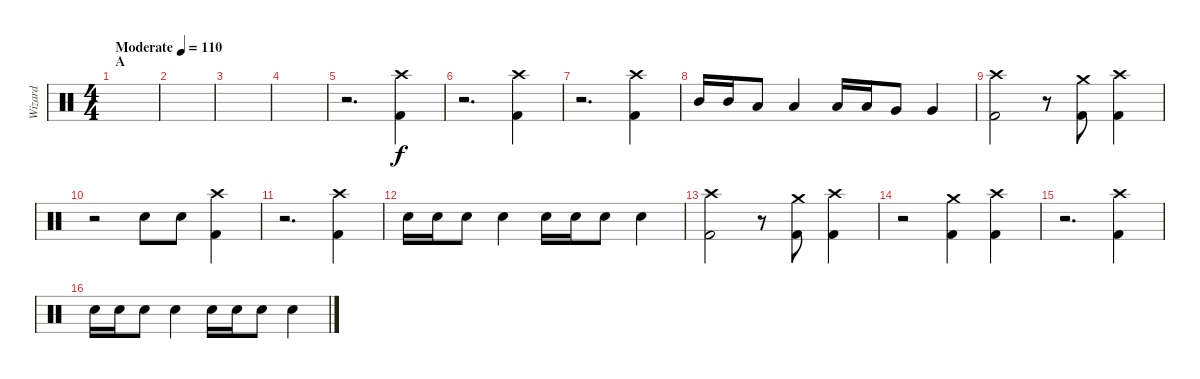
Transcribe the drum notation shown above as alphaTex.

\track ("Wizard" "Wizard") {instrument percussion}
\staff {score}
\articulation defaults
\ts (4 4)
\section ("" "A")
\tempo (110 "Moderate")
\clef neutral
\ks c
|
|
|
|
r.2{d} ("Crash high (hit)" "Kick (hit) 2").4 |
r.2{d} ("Crash high (hit)" "Kick (hit) 2").4 |
r.2{d} ("Crash high (hit)" "Kick (hit) 2").4 |
"Mid Tom (hit)".16 "Mid Tom (hit)".16 "Low Tom (hit)".8 "Low Tom (hit)".4 "Low Tom (hit)".16 "Low Tom (hit)".16 "Very Low Tom (hit)".8 "Very Low Tom (hit)".4 |
("Crash high (hit)" "Kick (hit) 2").2 r.8 ("Crash medium (hit)" "Kick (hit) 2").8 ("Crash high (hit)" "Kick (hit) 2").4 |
r.2 "Snare (hit) 2".8 "Snare (hit) 2".8 ("Crash high (hit)" "Kick (hit) 2").4 |
r.2{d} ("Crash high (hit)" "Kick (hit) 2").4 |
"Snare (hit) 2".16 "Snare (hit) 2".16 "Snare (hit) 2".8 "Snare (hit) 2".4 "Snare (hit) 2".16 "Snare (hit) 2".16 "Snare (hit) 2".8 "Snare (hit) 2".4 |
("Crash high (hit)" "Kick (hit) 2").2 r.8 ("Crash medium (hit)" "Kick (hit) 2").8 ("Crash high (hit)" "Kick (hit) 2").4 |
r.2 ("Crash medium (hit)" "Kick (hit) 2").4 ("Crash high (hit)" "Kick (hit) 2").4 |
r.2{d} ("Crash high (hit)" "Kick (hit) 2").4 |
"Snare (hit) 2".16 "Snare (hit) 2".16 "Snare (hit) 2".8 "Snare (hit) 2".4 "Snare (hit) 2".16 "Snare (hit) 2".16 "Snare (hit) 2".8 "Snare (hit) 2".4
